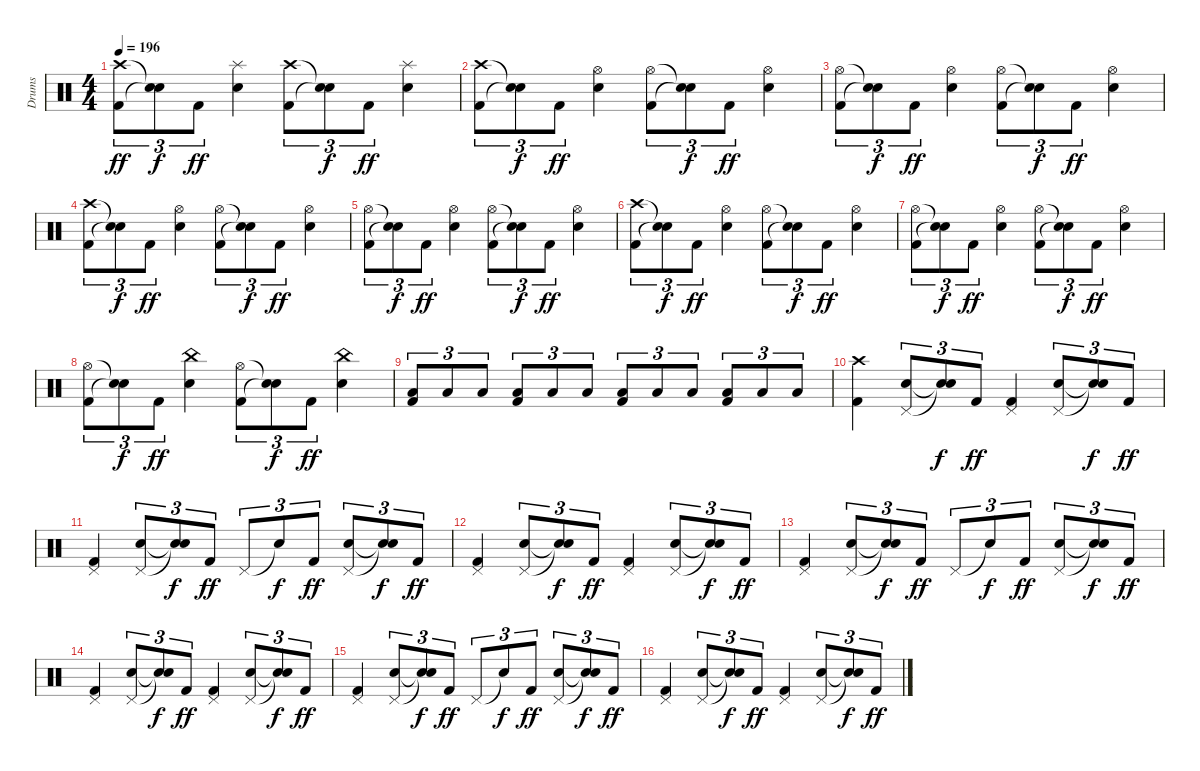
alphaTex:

\track ("Drums" "Drums") {instrument percussion}
\staff {score}
\articulation defaults
\ts (4 4)
\tempo 196
\clef neutral
\ks c
("Crash high (hit)" "Kick (hit) 2").8{tu (3 2) dy ff} ("Snare (hit)"{t} "Snare (hit)"{t}).8{tu (3 2) dy f} "Kick (hit) 2".8{tu (3 2) dy ff} ("Electric Snare (hit)" "Splash (hit)").4 ("Crash high (hit)" "Kick (hit) 2").8{tu (3 2)} ("Snare (hit)"{t} "Snare (hit)"{t}).8{tu (3 2) dy f} "Kick (hit) 2".8{tu (3 2) dy ff} ("Electric Snare (hit)" "Splash (hit)").4 |
("Kick (hit) 2" "Crash high (hit)").8{tu (3 2)} ("Snare (hit)"{t} "Snare (hit)"{t}).8{tu (3 2) dy f} "Kick (hit) 2".8{tu (3 2) dy ff} ("Hi-Hat (open)" "Electric Snare (hit)").4 ("Kick (hit) 2" "Hi-Hat (open)").8{tu (3 2)} ("Snare (hit)"{t} "Snare (hit)"{t}).8{tu (3 2) dy f} "Kick (hit) 2".8{tu (3 2) dy ff} ("Hi-Hat (open)" "Electric Snare (hit)").4 |
("Kick (hit) 2" "Hi-Hat (open)").8{tu (3 2)} ("Snare (hit)"{t} "Snare (hit)"{t}).8{tu (3 2) dy f} "Kick (hit) 2".8{tu (3 2) dy ff} ("Hi-Hat (open)" "Electric Snare (hit)").4 ("Kick (hit) 2" "Hi-Hat (open)").8{tu (3 2)} ("Snare (hit)"{t} "Snare (hit)"{t}).8{tu (3 2) dy f} "Kick (hit) 2".8{tu (3 2) dy ff} ("Hi-Hat (open)" "Electric Snare (hit)").4 |
("Kick (hit) 2" "Crash high (hit)").8{tu (3 2)} ("Snare (hit)"{t} "Snare (hit)"{t}).8{tu (3 2) dy f} "Kick (hit) 2".8{tu (3 2) dy ff} ("Hi-Hat (open)" "Electric Snare (hit)").4 ("Kick (hit) 2" "Hi-Hat (open)").8{tu (3 2)} ("Snare (hit)"{t} "Snare (hit)"{t}).8{tu (3 2) dy f} "Kick (hit) 2".8{tu (3 2) dy ff} ("Hi-Hat (open)" "Electric Snare (hit)").4 |
("Kick (hit) 2" "Hi-Hat (open)").8{tu (3 2)} ("Snare (hit)"{t} "Snare (hit)"{t}).8{tu (3 2) dy f} "Kick (hit) 2".8{tu (3 2) dy ff} ("Hi-Hat (open)" "Electric Snare (hit)").4 ("Kick (hit) 2" "Hi-Hat (open)").8{tu (3 2)} ("Snare (hit)"{t} "Snare (hit)"{t}).8{tu (3 2) dy f} "Kick (hit) 2".8{tu (3 2) dy ff} ("Hi-Hat (open)" "Electric Snare (hit)").4 |
("Kick (hit) 2" "Crash high (hit)").8{tu (3 2)} ("Snare (hit)"{t} "Snare (hit)"{t}).8{tu (3 2) dy f} "Kick (hit) 2".8{tu (3 2) dy ff} ("Hi-Hat (open)" "Electric Snare (hit)").4 ("Kick (hit) 2" "Hi-Hat (open)").8{tu (3 2)} ("Snare (hit)"{t} "Snare (hit)"{t}).8{tu (3 2) dy f} "Kick (hit) 2".8{tu (3 2) dy ff} ("Hi-Hat (open)" "Electric Snare (hit)").4 |
("Kick (hit) 2" "Hi-Hat (open)").8{tu (3 2)} ("Snare (hit)"{t} "Snare (hit)"{t}).8{tu (3 2) dy f} "Kick (hit) 2".8{tu (3 2) dy ff} ("Hi-Hat (open)" "Electric Snare (hit)").4 ("Kick (hit) 2" "Hi-Hat (open)").8{tu (3 2)} ("Snare (hit)"{t} "Snare (hit)"{t}).8{tu (3 2) dy f} "Kick (hit) 2".8{tu (3 2) dy ff} ("Hi-Hat (open)" "Electric Snare (hit)").4 |
("Hi-Hat (open)" "Kick (hit) 2").8{tu (3 2)} ("Snare (hit)"{t} "Snare (hit)"{t}).8{tu (3 2) dy f} "Kick (hit) 2".8{tu (3 2) dy ff} ("China (hit)" "Electric Snare (hit)").4 ("Hi-Hat (open)" "Kick (hit) 2").8{tu (3 2)} ("Snare (hit)"{t} "Snare (hit)"{t}).8{tu (3 2) dy f} "Kick (hit) 2".8{tu (3 2) dy ff} ("China (hit)" "Electric Snare (hit)").4 |
("Kick (hit) 2" "Low Tom (hit)").8{tu (3 2)} "Low Tom (hit)".8{tu (3 2)} "Low Tom (hit)".8{tu (3 2)} ("Kick (hit) 2" "Low Tom (hit)").8{tu (3 2)} "Low Tom (hit)".8{tu (3 2)} "Low Tom (hit)".8{tu (3 2)} ("Kick (hit) 2" "Low Tom (hit)").8{tu (3 2)} "Low Tom (hit)".8{tu (3 2)} "Low Tom (hit)".8{tu (3 2)} ("Kick (hit) 2" "Low Tom (hit)").8{tu (3 2)} "Low Tom (hit)".8{tu (3 2)} "Low Tom (hit)".8{tu (3 2)} |
("Crash high (hit)" "Kick (hit) 2").4 ("Pedal Hi-Hat (hit)" "Electric Snare (hit)").8{tu (3 2)} ("Snare (hit)"{t} "Snare (hit)"{t}).8{tu (3 2) dy f} "Kick (hit) 2".8{tu (3 2) dy ff} ("Pedal Hi-Hat (hit)" "Kick (hit) 2").4 ("Pedal Hi-Hat (hit)" "Electric Snare (hit)").8{tu (3 2)} ("Snare (hit)"{t} "Snare (hit)"{t}).8{tu (3 2) dy f} "Kick (hit) 2".8{tu (3 2) dy ff} |
("Pedal Hi-Hat (hit)" "Kick (hit) 2").4 ("Pedal Hi-Hat (hit)" "Electric Snare (hit)").8{tu (3 2)} ("Snare (hit)"{t} "Snare (hit)"{t}).8{tu (3 2) dy f} "Kick (hit) 2".8{tu (3 2) dy ff} "Pedal Hi-Hat (hit)".8{tu (3 2)} "Snare (hit)"{t}.8{tu (3 2) dy f} "Kick (hit) 2".8{tu (3 2) dy ff} ("Pedal Hi-Hat (hit)" "Electric Snare (hit)").8{tu (3 2)} ("Snare (hit)"{t} "Snare (hit)"{t}).8{tu (3 2) dy f} "Kick (hit) 2".8{tu (3 2) dy ff} |
("Pedal Hi-Hat (hit)" "Kick (hit) 2").4 ("Pedal Hi-Hat (hit)" "Electric Snare (hit)").8{tu (3 2)} ("Snare (hit)"{t} "Snare (hit)"{t}).8{tu (3 2) dy f} "Kick (hit) 2".8{tu (3 2) dy ff} ("Pedal Hi-Hat (hit)" "Kick (hit) 2").4 ("Pedal Hi-Hat (hit)" "Electric Snare (hit)").8{tu (3 2)} ("Snare (hit)"{t} "Snare (hit)"{t}).8{tu (3 2) dy f} "Kick (hit) 2".8{tu (3 2) dy ff} |
("Pedal Hi-Hat (hit)" "Kick (hit) 2").4 ("Pedal Hi-Hat (hit)" "Electric Snare (hit)").8{tu (3 2)} ("Snare (hit)"{t} "Snare (hit)"{t}).8{tu (3 2) dy f} "Kick (hit) 2".8{tu (3 2) dy ff} "Pedal Hi-Hat (hit)".8{tu (3 2)} "Snare (hit)"{t}.8{tu (3 2) dy f} "Kick (hit) 2".8{tu (3 2) dy ff} ("Pedal Hi-Hat (hit)" "Electric Snare (hit)").8{tu (3 2)} ("Snare (hit)"{t} "Snare (hit)"{t}).8{tu (3 2) dy f} "Kick (hit) 2".8{tu (3 2) dy ff} |
("Pedal Hi-Hat (hit)" "Kick (hit) 2").4 ("Pedal Hi-Hat (hit)" "Electric Snare (hit)").8{tu (3 2)} ("Snare (hit)"{t} "Snare (hit)"{t}).8{tu (3 2) dy f} "Kick (hit) 2".8{tu (3 2) dy ff} ("Pedal Hi-Hat (hit)" "Kick (hit) 2").4 ("Pedal Hi-Hat (hit)" "Electric Snare (hit)").8{tu (3 2)} ("Snare (hit)"{t} "Snare (hit)"{t}).8{tu (3 2) dy f} "Kick (hit) 2".8{tu (3 2) dy ff} |
("Pedal Hi-Hat (hit)" "Kick (hit) 2").4 ("Pedal Hi-Hat (hit)" "Electric Snare (hit)").8{tu (3 2)} ("Snare (hit)"{t} "Snare (hit)"{t}).8{tu (3 2) dy f} "Kick (hit) 2".8{tu (3 2) dy ff} "Pedal Hi-Hat (hit)".8{tu (3 2)} "Snare (hit)"{t}.8{tu (3 2) dy f} "Kick (hit) 2".8{tu (3 2) dy ff} ("Pedal Hi-Hat (hit)" "Electric Snare (hit)").8{tu (3 2)} ("Snare (hit)"{t} "Snare (hit)"{t}).8{tu (3 2) dy f} "Kick (hit) 2".8{tu (3 2) dy ff} |
("Pedal Hi-Hat (hit)" "Kick (hit) 2").4 ("Pedal Hi-Hat (hit)" "Electric Snare (hit)").8{tu (3 2)} ("Snare (hit)"{t} "Snare (hit)"{t}).8{tu (3 2) dy f} "Kick (hit) 2".8{tu (3 2) dy ff} ("Pedal Hi-Hat (hit)" "Kick (hit) 2").4 ("Pedal Hi-Hat (hit)" "Electric Snare (hit)").8{tu (3 2)} ("Snare (hit)"{t} "Snare (hit)"{t}).8{tu (3 2) dy f} "Kick (hit) 2".8{tu (3 2) dy ff}
